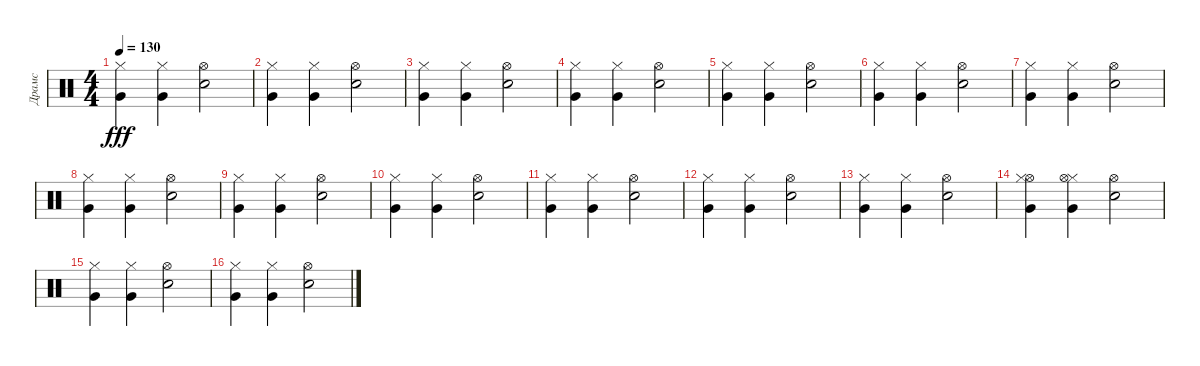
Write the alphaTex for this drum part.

\track ("Драмс" "Драмс") {instrument percussion}
\staff {score}
\articulation defaults
\ts (4 4)
\tempo 130
\clef neutral
\ks c
("Hi-Hat (closed)" "Very Low Tom (hit)").4{dy fff} ("Very Low Tom (hit)" "Hi-Hat (closed)").4 ("Snare (hit) 2" "Hi-Hat (open)").2 |
("Hi-Hat (closed)" "Very Low Tom (hit)").4 ("Very Low Tom (hit)" "Hi-Hat (closed)").4 ("Snare (hit) 2" "Hi-Hat (open)").2 |
("Hi-Hat (closed)" "Very Low Tom (hit)").4 ("Very Low Tom (hit)" "Hi-Hat (closed)").4 ("Snare (hit) 2" "Hi-Hat (open)").2 |
("Hi-Hat (closed)" "Very Low Tom (hit)").4 ("Very Low Tom (hit)" "Hi-Hat (closed)").4 ("Snare (hit) 2" "Hi-Hat (open)").2 |
("Hi-Hat (closed)" "Very Low Tom (hit)").4 ("Very Low Tom (hit)" "Hi-Hat (closed)").4 ("Snare (hit) 2" "Hi-Hat (open)").2 |
("Hi-Hat (closed)" "Very Low Tom (hit)").4 ("Very Low Tom (hit)" "Hi-Hat (closed)").4 ("Snare (hit) 2" "Hi-Hat (open)").2 |
("Hi-Hat (closed)" "Very Low Tom (hit)").4 ("Very Low Tom (hit)" "Hi-Hat (closed)").4 ("Snare (hit) 2" "Hi-Hat (open)").2 |
("Hi-Hat (closed)" "Very Low Tom (hit)").4 ("Very Low Tom (hit)" "Hi-Hat (closed)").4 ("Snare (hit) 2" "Hi-Hat (open)").2 |
("Hi-Hat (closed)" "Very Low Tom (hit)").4 ("Very Low Tom (hit)" "Hi-Hat (closed)").4 ("Snare (hit) 2" "Hi-Hat (open)").2 |
("Hi-Hat (closed)" "Very Low Tom (hit)").4 ("Very Low Tom (hit)" "Hi-Hat (closed)").4 ("Snare (hit) 2" "Hi-Hat (open)").2 |
("Hi-Hat (closed)" "Very Low Tom (hit)").4 ("Very Low Tom (hit)" "Hi-Hat (closed)").4 ("Snare (hit) 2" "Hi-Hat (open)").2 |
("Hi-Hat (closed)" "Very Low Tom (hit)").4 ("Very Low Tom (hit)" "Hi-Hat (closed)").4 ("Snare (hit) 2" "Hi-Hat (open)").2 |
("Hi-Hat (closed)" "Very Low Tom (hit)").4 ("Very Low Tom (hit)" "Hi-Hat (closed)").4 ("Snare (hit) 2" "Hi-Hat (open)").2 |
("Hi-Hat (open)" "Hi-Hat (closed)" "Very Low Tom (hit)").4 ("Very Low Tom (hit)" "Hi-Hat (closed)" "Hi-Hat (open)").4 ("Snare (hit) 2" "Hi-Hat (open)").2 |
("Hi-Hat (closed)" "Very Low Tom (hit)").4 ("Very Low Tom (hit)" "Hi-Hat (closed)").4 ("Snare (hit) 2" "Hi-Hat (open)").2 |
("Hi-Hat (closed)" "Very Low Tom (hit)").4 ("Very Low Tom (hit)" "Hi-Hat (closed)").4 ("Snare (hit) 2" "Hi-Hat (open)").2
